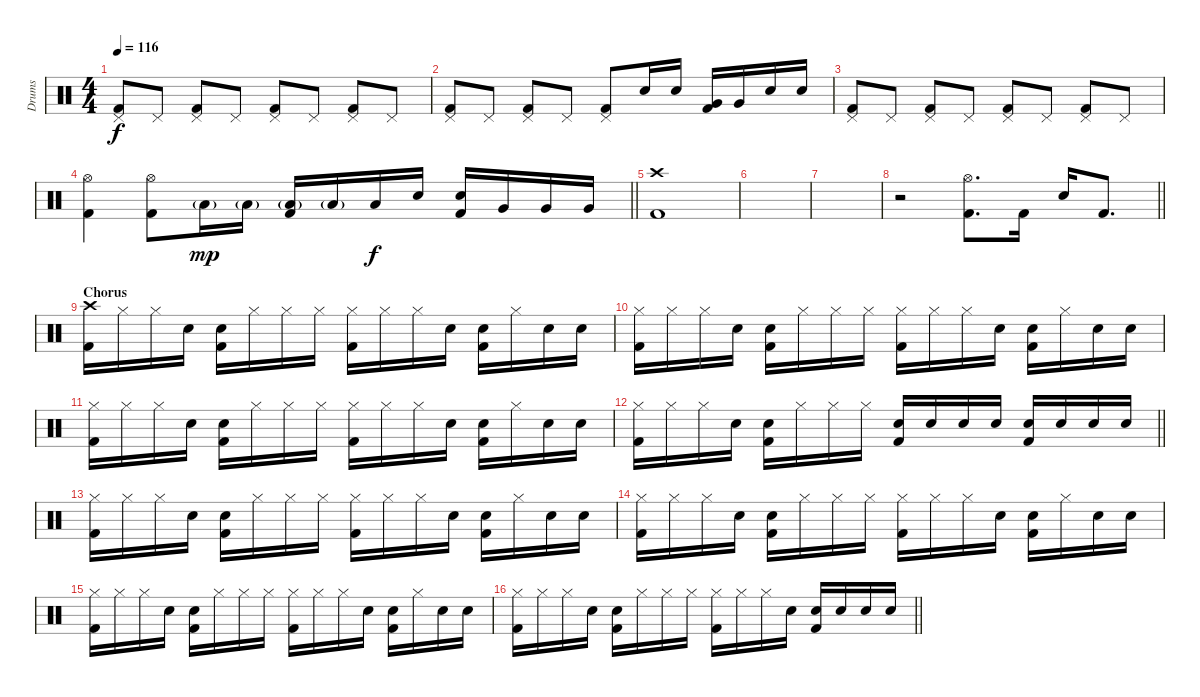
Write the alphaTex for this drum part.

\track ("Drums" "Drums") {instrument percussion}
\staff {score}
\articulation defaults
\ts (4 4)
\tempo 116
\clef neutral
\ks c
("Pedal Hi-Hat (hit)" "Kick (hit) 2").8{dy f} "Pedal Hi-Hat (hit)".8 ("Pedal Hi-Hat (hit)" "Kick (hit) 2").8 "Pedal Hi-Hat (hit)".8 ("Pedal Hi-Hat (hit)" "Kick (hit) 2").8 "Pedal Hi-Hat (hit)".8 ("Pedal Hi-Hat (hit)" "Kick (hit) 2").8 "Pedal Hi-Hat (hit)".8 |
("Pedal Hi-Hat (hit)" "Kick (hit) 2").8 "Pedal Hi-Hat (hit)".8 ("Pedal Hi-Hat (hit)" "Kick (hit) 2").8 "Pedal Hi-Hat (hit)".8 ("Pedal Hi-Hat (hit)" "Kick (hit) 2").8 "Electric Snare (hit)".16 "Electric Snare (hit)".16 ("Very Low Tom (hit)" "Kick (hit) 2").16 "Very Low Tom (hit)".16 "Electric Snare (hit)".16 "Electric Snare (hit)".16 |
("Pedal Hi-Hat (hit)" "Kick (hit) 2").8 "Pedal Hi-Hat (hit)".8 ("Pedal Hi-Hat (hit)" "Kick (hit) 2").8 "Pedal Hi-Hat (hit)".8 ("Pedal Hi-Hat (hit)" "Kick (hit) 2").8 "Pedal Hi-Hat (hit)".8 ("Pedal Hi-Hat (hit)" "Kick (hit) 2").8 "Pedal Hi-Hat (hit)".8 |
\barLineRight lightlight
("Hi-Hat (open)" "Kick (hit) 2").4 ("Hi-Hat (open)" "Kick (hit) 2").8 "Low Floor Tom (hit)"{g}.16{dy mp} "Low Floor Tom (hit)"{g}.16 ("Low Floor Tom (hit)"{g} "Kick (hit) 2").16 "Low Floor Tom (hit)"{g}.16 "Low Floor Tom (hit)".16{dy f} "Electric Snare (hit)".16 ("Electric Snare (hit)" "Kick (hit) 2").16 "Very Low Tom (hit)".16 "Very Low Tom (hit)".16 "Very Low Tom (hit)".16 |
("Crash high (hit)" "Kick (hit) 2").1 |
|
|
\barLineRight lightlight
r.2 ("Hi-Hat (open)" "Kick (hit) 2").8{d} "Kick (hit) 2".16 "Electric Snare (hit)".16 "Kick (hit) 2".8{d} |
\section ("" "Chorus")
("Crash high (hit)" "Kick (hit) 2").16 "Hi-Hat (closed)".16 "Hi-Hat (closed)".16 "Electric Snare (hit)".16 ("Electric Snare (hit)" "Kick (hit) 2").16 "Hi-Hat (closed)".16 "Hi-Hat (closed)".16 "Hi-Hat (closed)".16 ("Hi-Hat (closed)" "Kick (hit) 2").16 "Hi-Hat (closed)".16 "Hi-Hat (closed)".16 "Electric Snare (hit)".16 ("Electric Snare (hit)" "Kick (hit) 2").16 "Hi-Hat (closed)".16 "Electric Snare (hit)".16 "Electric Snare (hit)".16 |
("Hi-Hat (closed)" "Kick (hit) 2").16 "Hi-Hat (closed)".16 "Hi-Hat (closed)".16 "Electric Snare (hit)".16 ("Electric Snare (hit)" "Kick (hit) 2").16 "Hi-Hat (closed)".16 "Hi-Hat (closed)".16 "Hi-Hat (closed)".16 ("Hi-Hat (closed)" "Kick (hit) 2").16 "Hi-Hat (closed)".16 "Hi-Hat (closed)".16 "Electric Snare (hit)".16 ("Electric Snare (hit)" "Kick (hit) 2").16 "Hi-Hat (closed)".16 "Electric Snare (hit)".16 "Electric Snare (hit)".16 |
("Hi-Hat (closed)" "Kick (hit) 2").16 "Hi-Hat (closed)".16 "Hi-Hat (closed)".16 "Electric Snare (hit)".16 ("Electric Snare (hit)" "Kick (hit) 2").16 "Hi-Hat (closed)".16 "Hi-Hat (closed)".16 "Hi-Hat (closed)".16 ("Hi-Hat (closed)" "Kick (hit) 2").16 "Hi-Hat (closed)".16 "Hi-Hat (closed)".16 "Electric Snare (hit)".16 ("Electric Snare (hit)" "Kick (hit) 2").16 "Hi-Hat (closed)".16 "Electric Snare (hit)".16 "Electric Snare (hit)".16 |
\barLineRight lightlight
("Hi-Hat (closed)" "Kick (hit) 2").16 "Hi-Hat (closed)".16 "Hi-Hat (closed)".16 "Electric Snare (hit)".16 ("Electric Snare (hit)" "Kick (hit) 2").16 "Hi-Hat (closed)".16 "Hi-Hat (closed)".16 "Hi-Hat (closed)".16 ("Electric Snare (hit)" "Kick (hit) 2").16 "Electric Snare (hit)".16 "Electric Snare (hit)".16 "Electric Snare (hit)".16 ("Electric Snare (hit)" "Kick (hit) 2").16 "Electric Snare (hit)".16 "Electric Snare (hit)".16 "Electric Snare (hit)".16 |
("Hi-Hat (closed)" "Kick (hit) 2").16 "Hi-Hat (closed)".16 "Hi-Hat (closed)".16 "Electric Snare (hit)".16 ("Electric Snare (hit)" "Kick (hit) 2").16 "Hi-Hat (closed)".16 "Hi-Hat (closed)".16 "Hi-Hat (closed)".16 ("Hi-Hat (closed)" "Kick (hit) 2").16 "Hi-Hat (closed)".16 "Hi-Hat (closed)".16 "Electric Snare (hit)".16 ("Electric Snare (hit)" "Kick (hit) 2").16 "Hi-Hat (closed)".16 "Electric Snare (hit)".16 "Electric Snare (hit)".16 |
("Hi-Hat (closed)" "Kick (hit) 2").16 "Hi-Hat (closed)".16 "Hi-Hat (closed)".16 "Electric Snare (hit)".16 ("Electric Snare (hit)" "Kick (hit) 2").16 "Hi-Hat (closed)".16 "Hi-Hat (closed)".16 "Hi-Hat (closed)".16 ("Hi-Hat (closed)" "Kick (hit) 2").16 "Hi-Hat (closed)".16 "Hi-Hat (closed)".16 "Electric Snare (hit)".16 ("Electric Snare (hit)" "Kick (hit) 2").16 "Hi-Hat (closed)".16 "Electric Snare (hit)".16 "Electric Snare (hit)".16 |
("Hi-Hat (closed)" "Kick (hit) 2").16 "Hi-Hat (closed)".16 "Hi-Hat (closed)".16 "Electric Snare (hit)".16 ("Electric Snare (hit)" "Kick (hit) 2").16 "Hi-Hat (closed)".16 "Hi-Hat (closed)".16 "Hi-Hat (closed)".16 ("Hi-Hat (closed)" "Kick (hit) 2").16 "Hi-Hat (closed)".16 "Hi-Hat (closed)".16 "Electric Snare (hit)".16 ("Electric Snare (hit)" "Kick (hit) 2").16 "Hi-Hat (closed)".16 "Electric Snare (hit)".16 "Electric Snare (hit)".16 |
\barLineRight lightlight
("Hi-Hat (closed)" "Kick (hit) 2").16 "Hi-Hat (closed)".16 "Hi-Hat (closed)".16 "Electric Snare (hit)".16 ("Electric Snare (hit)" "Kick (hit) 2").16 "Hi-Hat (closed)".16 "Hi-Hat (closed)".16 "Hi-Hat (closed)".16 ("Hi-Hat (closed)" "Kick (hit) 2").16 "Hi-Hat (closed)".16 "Hi-Hat (closed)".16 "Electric Snare (hit)".16 ("Electric Snare (hit)" "Kick (hit) 2").16 "Electric Snare (hit)".16 "Electric Snare (hit)".16 "Electric Snare (hit)".16
